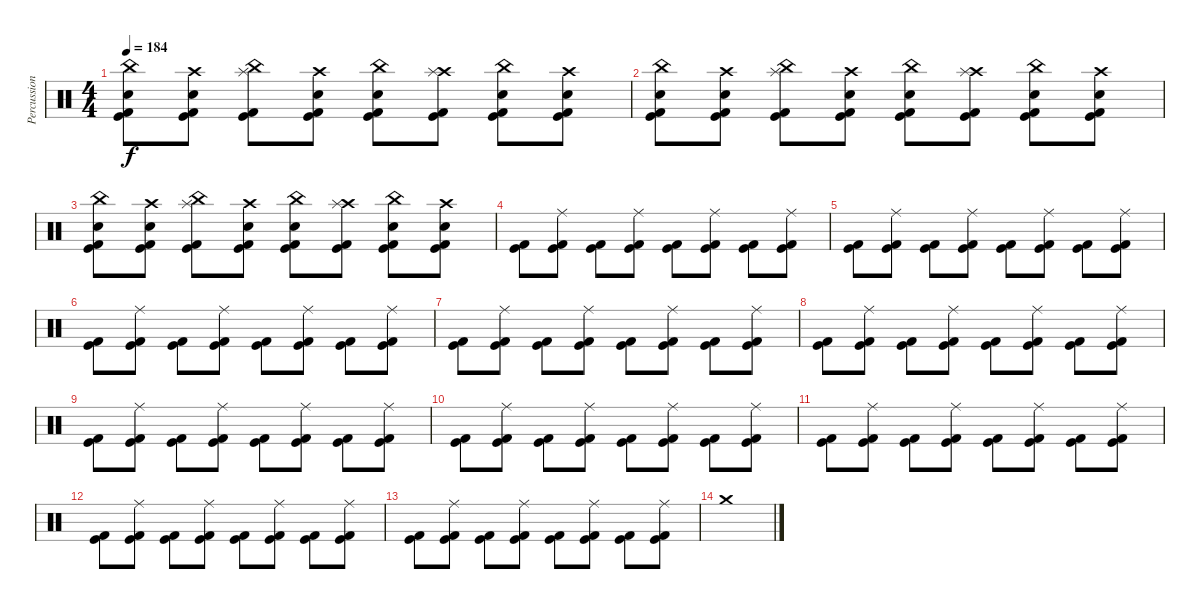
\track ("Percussion" "Percussion") {solo instrument percussion}
\staff {score}
\articulation defaults
\ts (4 4)
\tempo 184
\clef neutral
\ks c
("China (hit)" "Kick (hit)" "Snare (hit) 2" "Kick (hit) 2").8{dy f} ("Crash high (hit)" "Kick (hit)" "Snare (hit) 2" "Kick (hit) 2").8 ("China (hit)" "Kick (hit)" "Splash (hit)" "Kick (hit) 2").8 ("Crash high (hit)" "Kick (hit)" "Snare (hit) 2" "Kick (hit) 2").8 ("China (hit)" "Kick (hit)" "Snare (hit) 2" "Kick (hit) 2").8 ("Crash high (hit)" "Kick (hit)" "Splash (hit)" "Kick (hit) 2").8 ("China (hit)" "Kick (hit)" "Snare (hit) 2" "Kick (hit) 2").8 ("Crash high (hit)" "Kick (hit)" "Snare (hit) 2" "Kick (hit) 2").8 |
("China (hit)" "Kick (hit)" "Snare (hit) 2" "Kick (hit) 2").8 ("Crash high (hit)" "Kick (hit)" "Snare (hit) 2" "Kick (hit) 2").8 ("China (hit)" "Kick (hit)" "Splash (hit)" "Kick (hit) 2").8 ("Crash high (hit)" "Kick (hit)" "Snare (hit) 2" "Kick (hit) 2").8 ("China (hit)" "Kick (hit)" "Snare (hit) 2" "Kick (hit) 2").8 ("Crash high (hit)" "Kick (hit)" "Splash (hit)" "Kick (hit) 2").8 ("China (hit)" "Kick (hit)" "Snare (hit) 2" "Kick (hit) 2").8 ("Crash high (hit)" "Kick (hit)" "Snare (hit) 2" "Kick (hit) 2").8 |
("China (hit)" "Kick (hit)" "Snare (hit) 2" "Kick (hit) 2").8 ("Crash high (hit)" "Kick (hit)" "Snare (hit) 2" "Kick (hit) 2").8 ("China (hit)" "Kick (hit)" "Splash (hit)" "Kick (hit) 2").8 ("Crash high (hit)" "Kick (hit)" "Snare (hit) 2" "Kick (hit) 2").8 ("China (hit)" "Kick (hit)" "Snare (hit) 2" "Kick (hit) 2").8 ("Crash high (hit)" "Kick (hit)" "Splash (hit)" "Kick (hit) 2").8 ("China (hit)" "Kick (hit)" "Snare (hit) 2" "Kick (hit) 2").8 ("Crash high (hit)" "Kick (hit)" "Snare (hit) 2" "Kick (hit) 2").8 |
("Kick (hit) 2" "Kick (hit)").8 ("Ride (middle)" "Kick (hit) 2" "Kick (hit)").8 ("Kick (hit) 2" "Kick (hit)").8 ("Ride (middle)" "Kick (hit) 2" "Kick (hit)").8 ("Kick (hit) 2" "Kick (hit)").8 ("Ride (middle)" "Kick (hit) 2" "Kick (hit)").8 ("Kick (hit) 2" "Kick (hit)").8 ("Ride (middle)" "Kick (hit) 2" "Kick (hit)").8 |
("Kick (hit) 2" "Kick (hit)").8 ("Ride (middle)" "Kick (hit) 2" "Kick (hit)").8 ("Kick (hit) 2" "Kick (hit)").8 ("Ride (middle)" "Kick (hit) 2" "Kick (hit)").8 ("Kick (hit) 2" "Kick (hit)").8 ("Ride (middle)" "Kick (hit) 2" "Kick (hit)").8 ("Kick (hit) 2" "Kick (hit)").8 ("Ride (middle)" "Kick (hit) 2" "Kick (hit)").8 |
("Kick (hit) 2" "Kick (hit)").8 ("Ride (middle)" "Kick (hit) 2" "Kick (hit)").8 ("Kick (hit) 2" "Kick (hit)").8 ("Ride (middle)" "Kick (hit) 2" "Kick (hit)").8 ("Kick (hit) 2" "Kick (hit)").8 ("Ride (middle)" "Kick (hit) 2" "Kick (hit)").8 ("Kick (hit) 2" "Kick (hit)").8 ("Ride (middle)" "Kick (hit) 2" "Kick (hit)").8 |
("Kick (hit) 2" "Kick (hit)").8 ("Ride (middle)" "Kick (hit) 2" "Kick (hit)").8 ("Kick (hit) 2" "Kick (hit)").8 ("Ride (middle)" "Kick (hit) 2" "Kick (hit)").8 ("Kick (hit) 2" "Kick (hit)").8 ("Ride (middle)" "Kick (hit) 2" "Kick (hit)").8 ("Kick (hit) 2" "Kick (hit)").8 ("Ride (middle)" "Kick (hit) 2" "Kick (hit)").8 |
("Kick (hit) 2" "Kick (hit)").8 ("Ride (middle)" "Kick (hit) 2" "Kick (hit)").8 ("Kick (hit) 2" "Kick (hit)").8 ("Ride (middle)" "Kick (hit) 2" "Kick (hit)").8 ("Kick (hit) 2" "Kick (hit)").8 ("Ride (middle)" "Kick (hit) 2" "Kick (hit)").8 ("Kick (hit) 2" "Kick (hit)").8 ("Ride (middle)" "Kick (hit) 2" "Kick (hit)").8 |
("Kick (hit) 2" "Kick (hit)").8 ("Ride (middle)" "Kick (hit) 2" "Kick (hit)").8 ("Kick (hit) 2" "Kick (hit)").8 ("Ride (middle)" "Kick (hit) 2" "Kick (hit)").8 ("Kick (hit) 2" "Kick (hit)").8 ("Ride (middle)" "Kick (hit) 2" "Kick (hit)").8 ("Kick (hit) 2" "Kick (hit)").8 ("Ride (middle)" "Kick (hit) 2" "Kick (hit)").8 |
("Kick (hit) 2" "Kick (hit)").8 ("Ride (middle)" "Kick (hit) 2" "Kick (hit)").8 ("Kick (hit) 2" "Kick (hit)").8 ("Ride (middle)" "Kick (hit) 2" "Kick (hit)").8 ("Kick (hit) 2" "Kick (hit)").8 ("Ride (middle)" "Kick (hit) 2" "Kick (hit)").8 ("Kick (hit) 2" "Kick (hit)").8 ("Ride (middle)" "Kick (hit) 2" "Kick (hit)").8 |
("Kick (hit) 2" "Kick (hit)").8 ("Ride (middle)" "Kick (hit) 2" "Kick (hit)").8 ("Kick (hit) 2" "Kick (hit)").8 ("Ride (middle)" "Kick (hit) 2" "Kick (hit)").8 ("Kick (hit) 2" "Kick (hit)").8 ("Ride (middle)" "Kick (hit) 2" "Kick (hit)").8 ("Kick (hit) 2" "Kick (hit)").8 ("Ride (middle)" "Kick (hit) 2" "Kick (hit)").8 |
("Kick (hit) 2" "Kick (hit)").8 ("Ride (middle)" "Kick (hit) 2" "Kick (hit)").8 ("Kick (hit) 2" "Kick (hit)").8 ("Ride (middle)" "Kick (hit) 2" "Kick (hit)").8 ("Kick (hit) 2" "Kick (hit)").8 ("Ride (middle)" "Kick (hit) 2" "Kick (hit)").8 ("Kick (hit) 2" "Kick (hit)").8 ("Ride (middle)" "Kick (hit) 2" "Kick (hit)").8 |
("Kick (hit) 2" "Kick (hit)").8 ("Ride (middle)" "Kick (hit) 2" "Kick (hit)").8 ("Kick (hit) 2" "Kick (hit)").8 ("Ride (middle)" "Kick (hit) 2" "Kick (hit)").8 ("Kick (hit) 2" "Kick (hit)").8 ("Ride (middle)" "Kick (hit) 2" "Kick (hit)").8 ("Kick (hit) 2" "Kick (hit)").8 ("Ride (middle)" "Kick (hit) 2" "Kick (hit)").8 |
"Crash medium (hit)".1
